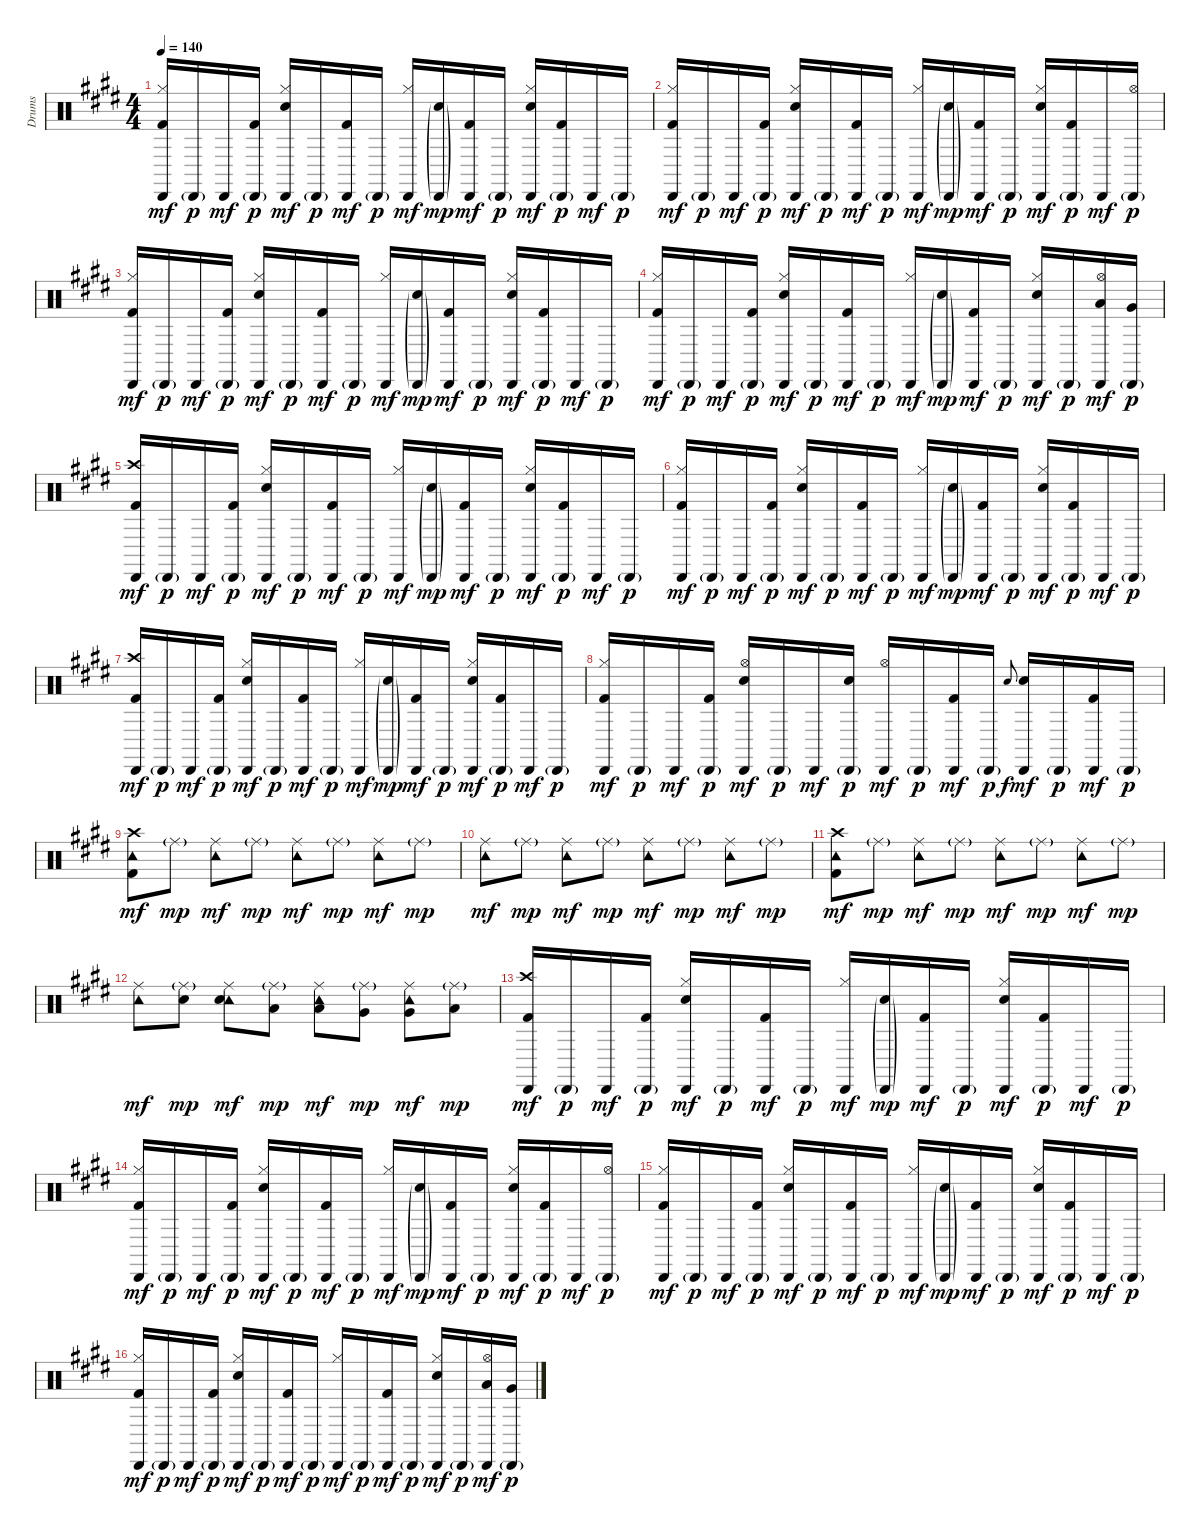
\track ("Drums" "Drums") {instrument percussion}
\staff {score}
\articulation defaults
\ts (4 4)
\tempo 140
\clef neutral
\ks e
("Hi-Hat (closed)" "Cabasa (hit)" "Kick (hit) 2").16{dy mf} "Cabasa (hit)"{g}.16{dy p} "Cabasa (hit)".16{dy mf} ("Cabasa (hit)"{g} "Kick (hit) 2").16{dy p} ("Hi-Hat (closed)" "Cabasa (hit)" "Snare (hit) 2").16{dy mf} "Cabasa (hit)"{g}.16{dy p} ("Cabasa (hit)" "Kick (hit) 2").16{dy mf} "Cabasa (hit)"{g}.16{dy p} ("Hi-Hat (closed)" "Cabasa (hit)").16{dy mf} ("Cabasa (hit)"{g} "Snare (hit) 2"{g}).16{dy mp} ("Cabasa (hit)" "Kick (hit) 2").16{dy mf} "Cabasa (hit)"{g}.16{dy p} ("Hi-Hat (closed)" "Cabasa (hit)" "Snare (hit) 2").16{dy mf} ("Cabasa (hit)"{g} "Kick (hit) 2").16{dy p} "Cabasa (hit)".16{dy mf} "Cabasa (hit)"{g}.16{dy p} |
("Hi-Hat (closed)" "Cabasa (hit)" "Kick (hit) 2").16{dy mf} "Cabasa (hit)"{g}.16{dy p} "Cabasa (hit)".16{dy mf} ("Cabasa (hit)"{g} "Kick (hit) 2").16{dy p} ("Hi-Hat (closed)" "Cabasa (hit)" "Snare (hit) 2").16{dy mf} "Cabasa (hit)"{g}.16{dy p} ("Cabasa (hit)" "Kick (hit) 2").16{dy mf} "Cabasa (hit)"{g}.16{dy p} ("Hi-Hat (closed)" "Cabasa (hit)").16{dy mf} ("Cabasa (hit)"{g} "Snare (hit) 2"{g}).16{dy mp} ("Cabasa (hit)" "Kick (hit) 2").16{dy mf} "Cabasa (hit)"{g}.16{dy p} ("Hi-Hat (closed)" "Cabasa (hit)" "Snare (hit) 2").16{dy mf} ("Cabasa (hit)"{g} "Kick (hit) 2").16{dy p} "Cabasa (hit)".16{dy mf} ("Hi-Hat (open)" "Cabasa (hit)"{g}).16{dy p} |
("Hi-Hat (closed)" "Cabasa (hit)" "Kick (hit) 2").16{dy mf} "Cabasa (hit)"{g}.16{dy p} "Cabasa (hit)".16{dy mf} ("Cabasa (hit)"{g} "Kick (hit) 2").16{dy p} ("Hi-Hat (closed)" "Cabasa (hit)" "Snare (hit) 2").16{dy mf} "Cabasa (hit)"{g}.16{dy p} ("Cabasa (hit)" "Kick (hit) 2").16{dy mf} "Cabasa (hit)"{g}.16{dy p} ("Hi-Hat (closed)" "Cabasa (hit)").16{dy mf} ("Cabasa (hit)"{g} "Snare (hit) 2"{g}).16{dy mp} ("Cabasa (hit)" "Kick (hit) 2").16{dy mf} "Cabasa (hit)"{g}.16{dy p} ("Hi-Hat (closed)" "Cabasa (hit)" "Snare (hit) 2").16{dy mf} ("Cabasa (hit)"{g} "Kick (hit) 2").16{dy p} "Cabasa (hit)".16{dy mf} "Cabasa (hit)"{g}.16{dy p} |
("Hi-Hat (closed)" "Cabasa (hit)" "Kick (hit) 2").16{dy mf} "Cabasa (hit)"{g}.16{dy p} "Cabasa (hit)".16{dy mf} ("Cabasa (hit)"{g} "Kick (hit) 2").16{dy p} ("Hi-Hat (closed)" "Cabasa (hit)" "Snare (hit) 2").16{dy mf} "Cabasa (hit)"{g}.16{dy p} ("Cabasa (hit)" "Kick (hit) 2").16{dy mf} "Cabasa (hit)"{g}.16{dy p} ("Hi-Hat (closed)" "Cabasa (hit)").16{dy mf} ("Cabasa (hit)"{g} "Snare (hit) 2"{g}).16{dy mp} ("Cabasa (hit)" "Kick (hit) 2").16{dy mf} "Cabasa (hit)"{g}.16{dy p} ("Hi-Hat (closed)" "Cabasa (hit)" "Snare (hit) 2").16{dy mf} "Cabasa (hit)"{g}.16{dy p} ("Hi-Hat (open)" "Cabasa (hit)" "Low Tom (hit)").16{dy mf} ("Cabasa (hit)"{g} "Very Low Tom (hit)").16{dy p} |
("Crash high (hit)" "Cabasa (hit)" "Kick (hit) 2").16{dy mf} "Cabasa (hit)"{g}.16{dy p} "Cabasa (hit)".16{dy mf} ("Cabasa (hit)"{g} "Kick (hit) 2").16{dy p} ("Hi-Hat (closed)" "Cabasa (hit)" "Snare (hit) 2").16{dy mf} "Cabasa (hit)"{g}.16{dy p} ("Cabasa (hit)" "Kick (hit) 2").16{dy mf} "Cabasa (hit)"{g}.16{dy p} ("Hi-Hat (closed)" "Cabasa (hit)").16{dy mf} ("Cabasa (hit)"{g} "Snare (hit) 2"{g}).16{dy mp} ("Cabasa (hit)" "Kick (hit) 2").16{dy mf} "Cabasa (hit)"{g}.16{dy p} ("Hi-Hat (closed)" "Cabasa (hit)" "Snare (hit) 2").16{dy mf} ("Cabasa (hit)"{g} "Kick (hit) 2").16{dy p} "Cabasa (hit)".16{dy mf} "Cabasa (hit)"{g}.16{dy p} |
("Hi-Hat (closed)" "Cabasa (hit)" "Kick (hit) 2").16{dy mf} "Cabasa (hit)"{g}.16{dy p} "Cabasa (hit)".16{dy mf} ("Cabasa (hit)"{g} "Kick (hit) 2").16{dy p} ("Hi-Hat (closed)" "Cabasa (hit)" "Snare (hit) 2").16{dy mf} "Cabasa (hit)"{g}.16{dy p} ("Cabasa (hit)" "Kick (hit) 2").16{dy mf} "Cabasa (hit)"{g}.16{dy p} ("Hi-Hat (closed)" "Cabasa (hit)").16{dy mf} ("Cabasa (hit)"{g} "Snare (hit) 2"{g}).16{dy mp} ("Cabasa (hit)" "Kick (hit) 2").16{dy mf} "Cabasa (hit)"{g}.16{dy p} ("Hi-Hat (closed)" "Cabasa (hit)" "Snare (hit) 2").16{dy mf} ("Cabasa (hit)"{g} "Kick (hit) 2").16{dy p} "Cabasa (hit)".16{dy mf} "Cabasa (hit)"{g}.16{dy p} |
("Crash high (hit)" "Cabasa (hit)" "Kick (hit) 2").16{dy mf} "Cabasa (hit)"{g}.16{dy p} "Cabasa (hit)".16{dy mf} ("Cabasa (hit)"{g} "Kick (hit) 2").16{dy p} ("Hi-Hat (closed)" "Cabasa (hit)" "Snare (hit) 2").16{dy mf} "Cabasa (hit)"{g}.16{dy p} ("Cabasa (hit)" "Kick (hit) 2").16{dy mf} "Cabasa (hit)"{g}.16{dy p} ("Hi-Hat (closed)" "Cabasa (hit)").16{dy mf} ("Cabasa (hit)"{g} "Snare (hit) 2"{g}).16{dy mp} ("Cabasa (hit)" "Kick (hit) 2").16{dy mf} "Cabasa (hit)"{g}.16{dy p} ("Hi-Hat (closed)" "Cabasa (hit)" "Snare (hit) 2").16{dy mf} ("Cabasa (hit)"{g} "Kick (hit) 2").16{dy p} "Cabasa (hit)".16{dy mf} "Cabasa (hit)"{g}.16{dy p} |
("Hi-Hat (closed)" "Cabasa (hit)" "Kick (hit) 2").16{dy mf} "Cabasa (hit)"{g}.16{dy p} "Cabasa (hit)".16{dy mf} ("Cabasa (hit)"{g} "Kick (hit) 2").16{dy p} ("Hi-Hat (open)" "Cabasa (hit)" "Snare (hit) 2").16{dy mf} "Cabasa (hit)"{g}.16{dy p} "Cabasa (hit)".16{dy mf} ("Cabasa (hit)"{g} "Snare (hit) 2").16{dy p} ("Hi-Hat (open)" "Cabasa (hit)").16{dy mf} "Cabasa (hit)"{g}.16{dy p} ("Cabasa (hit)" "Kick (hit) 2").16{dy mf} "Cabasa (hit)"{g}.16{dy p} "Snare (hit) 2"{h}.8{gr onbeat dy f} ("Cabasa (hit)" "Snare (hit) 2").16{dy mf} "Cabasa (hit)"{g}.16{dy p} ("Cabasa (hit)" "Kick (hit) 2").16{dy mf} "Cabasa (hit)"{g}.16{dy p} |
("Crash high (hit)" "Tambourine (hit)" "Kick (hit) 2").8{dy mf} "Ride (middle)"{g}.8{dy mp} ("Ride (middle)" "Tambourine (hit)").8{dy mf} "Ride (middle)"{g}.8{dy mp} ("Ride (middle)" "Tambourine (hit)").8{dy mf} "Ride (middle)"{g}.8{dy mp} ("Ride (middle)" "Tambourine (hit)").8{dy mf} "Ride (middle)"{g}.8{dy mp} |
("Ride (middle)" "Tambourine (hit)").8{dy mf} "Ride (middle)"{g}.8{dy mp} ("Ride (middle)" "Tambourine (hit)").8{dy mf} "Ride (middle)"{g}.8{dy mp} ("Ride (middle)" "Tambourine (hit)").8{dy mf} "Ride (middle)"{g}.8{dy mp} ("Ride (middle)" "Tambourine (hit)").8{dy mf} "Ride (middle)"{g}.8{dy mp} |
("Crash high (hit)" "Tambourine (hit)" "Kick (hit) 2").8{dy mf} "Ride (middle)"{g}.8{dy mp} ("Ride (middle)" "Tambourine (hit)").8{dy mf} "Ride (middle)"{g}.8{dy mp} ("Ride (middle)" "Tambourine (hit)").8{dy mf} "Ride (middle)"{g}.8{dy mp} ("Ride (middle)" "Tambourine (hit)").8{dy mf} "Ride (middle)"{g}.8{dy mp} |
("Ride (middle)" "Tambourine (hit)").8{dy mf} ("Ride (middle)"{g} "Snare (hit) 2").8{dy mp} ("Ride (middle)" "Tambourine (hit)" "Snare (hit) 2").8{dy mf} ("Ride (middle)"{g} "Low Tom (hit)").8{dy mp} ("Ride (middle)" "Tambourine (hit)" "Low Tom (hit)").8{dy mf} ("Ride (middle)"{g} "Very Low Tom (hit)").8{dy mp} ("Ride (middle)" "Tambourine (hit)" "Very Low Tom (hit)").8{dy mf} ("Ride (middle)"{g} "Low Floor Tom (hit)").8{dy mp} |
("Crash high (hit)" "Cabasa (hit)" "Kick (hit) 2").16{dy mf} "Cabasa (hit)"{g}.16{dy p} "Cabasa (hit)".16{dy mf} ("Cabasa (hit)"{g} "Kick (hit) 2").16{dy p} ("Hi-Hat (closed)" "Cabasa (hit)" "Snare (hit) 2").16{dy mf} "Cabasa (hit)"{g}.16{dy p} ("Cabasa (hit)" "Kick (hit) 2").16{dy mf} "Cabasa (hit)"{g}.16{dy p} ("Hi-Hat (closed)" "Cabasa (hit)").16{dy mf} ("Cabasa (hit)"{g} "Snare (hit) 2"{g}).16{dy mp} ("Cabasa (hit)" "Kick (hit) 2").16{dy mf} "Cabasa (hit)"{g}.16{dy p} ("Hi-Hat (closed)" "Cabasa (hit)" "Snare (hit) 2").16{dy mf} ("Cabasa (hit)"{g} "Kick (hit) 2").16{dy p} "Cabasa (hit)".16{dy mf} "Cabasa (hit)"{g}.16{dy p} |
("Hi-Hat (closed)" "Cabasa (hit)" "Kick (hit) 2").16{dy mf} "Cabasa (hit)"{g}.16{dy p} "Cabasa (hit)".16{dy mf} ("Cabasa (hit)"{g} "Kick (hit) 2").16{dy p} ("Hi-Hat (closed)" "Cabasa (hit)" "Snare (hit) 2").16{dy mf} "Cabasa (hit)"{g}.16{dy p} ("Cabasa (hit)" "Kick (hit) 2").16{dy mf} "Cabasa (hit)"{g}.16{dy p} ("Hi-Hat (closed)" "Cabasa (hit)").16{dy mf} ("Cabasa (hit)"{g} "Snare (hit) 2"{g}).16{dy mp} ("Cabasa (hit)" "Kick (hit) 2").16{dy mf} "Cabasa (hit)"{g}.16{dy p} ("Hi-Hat (closed)" "Cabasa (hit)" "Snare (hit) 2").16{dy mf} ("Cabasa (hit)"{g} "Kick (hit) 2").16{dy p} "Cabasa (hit)".16{dy mf} ("Hi-Hat (open)" "Cabasa (hit)"{g}).16{dy p} |
("Hi-Hat (closed)" "Cabasa (hit)" "Kick (hit) 2").16{dy mf} "Cabasa (hit)"{g}.16{dy p} "Cabasa (hit)".16{dy mf} ("Cabasa (hit)"{g} "Kick (hit) 2").16{dy p} ("Hi-Hat (closed)" "Cabasa (hit)" "Snare (hit) 2").16{dy mf} "Cabasa (hit)"{g}.16{dy p} ("Cabasa (hit)" "Kick (hit) 2").16{dy mf} "Cabasa (hit)"{g}.16{dy p} ("Hi-Hat (closed)" "Cabasa (hit)").16{dy mf} ("Cabasa (hit)"{g} "Snare (hit) 2"{g}).16{dy mp} ("Cabasa (hit)" "Kick (hit) 2").16{dy mf} "Cabasa (hit)"{g}.16{dy p} ("Hi-Hat (closed)" "Cabasa (hit)" "Snare (hit) 2").16{dy mf} ("Cabasa (hit)"{g} "Kick (hit) 2").16{dy p} "Cabasa (hit)".16{dy mf} "Cabasa (hit)"{g}.16{dy p} |
("Hi-Hat (closed)" "Cabasa (hit)" "Kick (hit) 2").16{dy mf} "Cabasa (hit)"{g}.16{dy p} "Cabasa (hit)".16{dy mf} ("Cabasa (hit)"{g} "Kick (hit) 2").16{dy p} ("Hi-Hat (closed)" "Cabasa (hit)" "Snare (hit) 2").16{dy mf} "Cabasa (hit)"{g}.16{dy p} ("Cabasa (hit)" "Kick (hit) 2").16{dy mf} "Cabasa (hit)"{g}.16{dy p} ("Hi-Hat (closed)" "Cabasa (hit)").16{dy mf} "Cabasa (hit)"{g}.16{dy p} ("Cabasa (hit)" "Kick (hit) 2").16{dy mf} "Cabasa (hit)"{g}.16{dy p} ("Hi-Hat (closed)" "Cabasa (hit)" "Snare (hit) 2").16{dy mf} "Cabasa (hit)"{g}.16{dy p} ("Hi-Hat (open)" "Cabasa (hit)" "Low Tom (hit)").16{dy mf} ("Cabasa (hit)"{g} "Very Low Tom (hit)").16{dy p}
